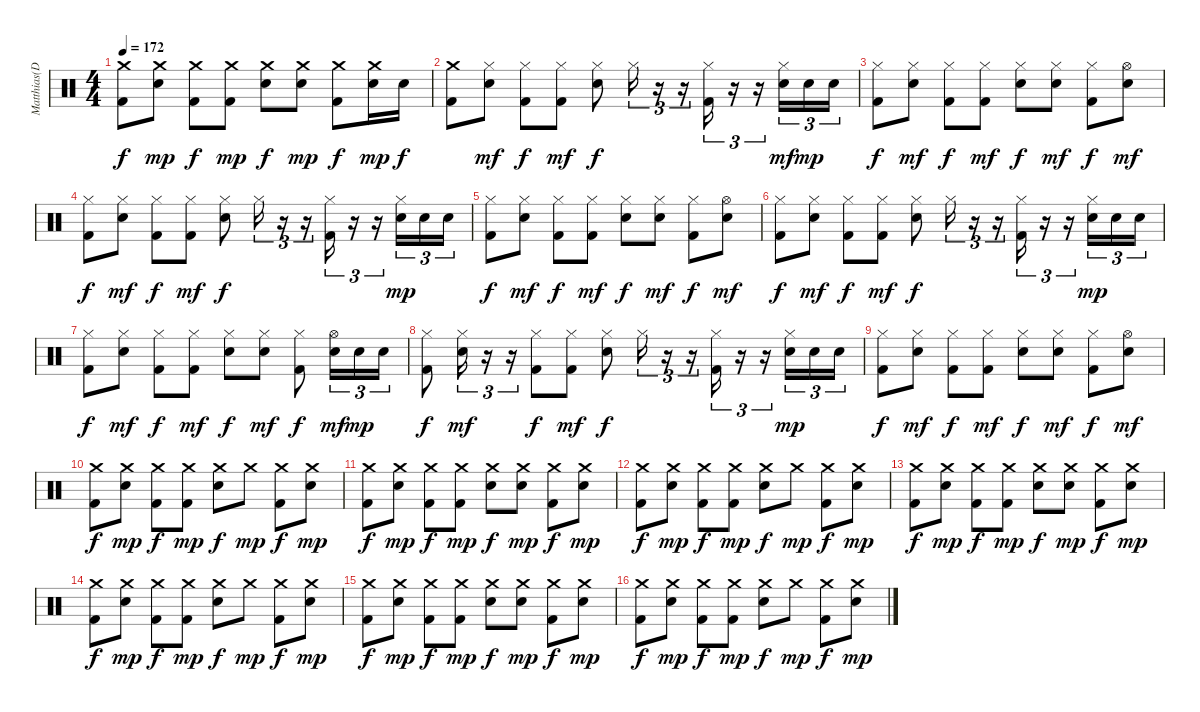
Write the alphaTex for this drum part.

\track ("Matthias(Drums)" "Matthias(D") {instrument percussion}
\staff {score}
\articulation defaults
\ts (4 4)
\tempo 172
\clef neutral
\ks c
("Crash medium (hit)" "Kick (hit) 2").8{dy f} ("Crash medium (hit)" "Snare (hit) 2").8{dy mp} ("Crash medium (hit)" "Kick (hit) 2").8{dy f} ("Crash medium (hit)" "Kick (hit) 2").8{dy mp} ("Crash medium (hit)" "Snare (hit) 2").8{dy f} ("Crash medium (hit)" "Snare (hit) 2").8{dy mp} ("Crash medium (hit)" "Kick (hit) 2").8{dy f} ("Crash medium (hit)" "Snare (hit) 2").16{dy mp} "Snare (hit) 2".16{dy f} |
("Crash medium (hit)" "Kick (hit) 2").8 ("Hi-Hat (closed)" "Snare (hit) 2").8{dy mf} ("Hi-Hat (closed)" "Kick (hit) 2").8{dy f} ("Hi-Hat (closed)" "Kick (hit) 2").8{dy mf} ("Hi-Hat (closed)" "Snare (hit) 2").8{dy f} "Hi-Hat (closed)".16{tu (3 2)} r.16{tu (3 2)} r.16{tu (3 2)} ("Hi-Hat (closed)" "Kick (hit) 2").16{tu (3 2)} r.16{tu (3 2)} r.16{tu (3 2)} ("Hi-Hat (closed)" "Snare (hit) 2").16{tu (3 2) dy mf} "Snare (hit) 2".16{tu (3 2) dy mp} "Snare (hit) 2".16{tu (3 2)} |
("Hi-Hat (closed)" "Kick (hit) 2").8{dy f} ("Hi-Hat (closed)" "Snare (hit) 2").8{dy mf} ("Hi-Hat (closed)" "Kick (hit) 2").8{dy f} ("Hi-Hat (closed)" "Kick (hit) 2").8{dy mf} ("Hi-Hat (closed)" "Snare (hit) 2").8{dy f} ("Hi-Hat (closed)" "Snare (hit) 2").8{dy mf} ("Hi-Hat (closed)" "Kick (hit) 2").8{dy f} ("Hi-Hat (open)" "Snare (hit) 2").8{dy mf} |
("Hi-Hat (closed)" "Kick (hit) 2").8{dy f} ("Hi-Hat (closed)" "Snare (hit) 2").8{dy mf} ("Hi-Hat (closed)" "Kick (hit) 2").8{dy f} ("Hi-Hat (closed)" "Kick (hit) 2").8{dy mf} ("Hi-Hat (closed)" "Snare (hit) 2").8{dy f} "Hi-Hat (closed)".16{tu (3 2)} r.16{tu (3 2)} r.16{tu (3 2)} ("Hi-Hat (closed)" "Kick (hit) 2").16{tu (3 2)} r.16{tu (3 2)} r.16{tu (3 2)} ("Hi-Hat (closed)" "Snare (hit) 2").16{tu (3 2) dy mp} "Snare (hit) 2".16{tu (3 2)} "Snare (hit) 2".16{tu (3 2)} |
("Hi-Hat (closed)" "Kick (hit) 2").8{dy f} ("Hi-Hat (closed)" "Snare (hit) 2").8{dy mf} ("Hi-Hat (closed)" "Kick (hit) 2").8{dy f} ("Hi-Hat (closed)" "Kick (hit) 2").8{dy mf} ("Hi-Hat (closed)" "Snare (hit) 2").8{dy f} ("Hi-Hat (closed)" "Snare (hit) 2").8{dy mf} ("Hi-Hat (closed)" "Kick (hit) 2").8{dy f} ("Hi-Hat (open)" "Snare (hit) 2").8{dy mf} |
("Hi-Hat (closed)" "Kick (hit) 2").8{dy f} ("Hi-Hat (closed)" "Snare (hit) 2").8{dy mf} ("Hi-Hat (closed)" "Kick (hit) 2").8{dy f} ("Hi-Hat (closed)" "Kick (hit) 2").8{dy mf} ("Hi-Hat (closed)" "Snare (hit) 2").8{dy f} "Hi-Hat (closed)".16{tu (3 2)} r.16{tu (3 2)} r.16{tu (3 2)} ("Hi-Hat (closed)" "Kick (hit) 2").16{tu (3 2)} r.16{tu (3 2)} r.16{tu (3 2)} ("Hi-Hat (closed)" "Snare (hit) 2").16{tu (3 2) dy mp} "Snare (hit) 2".16{tu (3 2)} "Snare (hit) 2".16{tu (3 2)} |
("Hi-Hat (closed)" "Kick (hit) 2").8{dy f} ("Hi-Hat (closed)" "Snare (hit) 2").8{dy mf} ("Hi-Hat (closed)" "Kick (hit) 2").8{dy f} ("Hi-Hat (closed)" "Kick (hit) 2").8{dy mf} ("Hi-Hat (closed)" "Snare (hit) 2").8{dy f} ("Hi-Hat (closed)" "Snare (hit) 2").8{dy mf} ("Hi-Hat (closed)" "Kick (hit) 2").8{dy f} ("Hi-Hat (open)" "Snare (hit) 2").16{tu (3 2) dy mf} "Snare (hit) 2".16{tu (3 2) dy mp} "Snare (hit) 2".16{tu (3 2)} |
("Hi-Hat (closed)" "Kick (hit) 2").8{dy f} ("Hi-Hat (closed)" "Snare (hit) 2").16{tu (3 2) dy mf} r.16{tu (3 2)} r.16{tu (3 2)} ("Hi-Hat (closed)" "Kick (hit) 2").8{dy f} ("Hi-Hat (closed)" "Kick (hit) 2").8{dy mf} ("Hi-Hat (closed)" "Snare (hit) 2").8{dy f} "Hi-Hat (closed)".16{tu (3 2)} r.16{tu (3 2)} r.16{tu (3 2)} ("Hi-Hat (closed)" "Kick (hit) 2").16{tu (3 2)} r.16{tu (3 2)} r.16{tu (3 2)} ("Hi-Hat (closed)" "Snare (hit) 2").16{tu (3 2) dy mp} "Snare (hit) 2".16{tu (3 2)} "Snare (hit) 2".16{tu (3 2)} |
("Hi-Hat (closed)" "Kick (hit) 2").8{dy f} ("Hi-Hat (closed)" "Snare (hit) 2").8{dy mf} ("Hi-Hat (closed)" "Kick (hit) 2").8{dy f} ("Hi-Hat (closed)" "Kick (hit) 2").8{dy mf} ("Hi-Hat (closed)" "Snare (hit) 2").8{dy f} ("Hi-Hat (closed)" "Snare (hit) 2").8{dy mf} ("Hi-Hat (closed)" "Kick (hit) 2").8{dy f} ("Hi-Hat (open)" "Snare (hit) 2").8{dy mf} |
("Crash medium (hit)" "Kick (hit) 2").8{dy f} ("Crash medium (hit)" "Snare (hit) 2").8{dy mp} ("Crash medium (hit)" "Kick (hit) 2").8{dy f} ("Crash medium (hit)" "Kick (hit) 2").8{dy mp} ("Crash medium (hit)" "Snare (hit) 2").8{dy f} "Crash medium (hit)".8{dy mp} ("Crash medium (hit)" "Kick (hit) 2").8{dy f} ("Crash medium (hit)" "Snare (hit) 2").8{dy mp} |
("Crash medium (hit)" "Kick (hit) 2").8{dy f} ("Crash medium (hit)" "Snare (hit) 2").8{dy mp} ("Crash medium (hit)" "Kick (hit) 2").8{dy f} ("Crash medium (hit)" "Kick (hit) 2").8{dy mp} ("Crash medium (hit)" "Snare (hit) 2").8{dy f} ("Crash medium (hit)" "Snare (hit) 2").8{dy mp} ("Crash medium (hit)" "Kick (hit) 2").8{dy f} ("Crash medium (hit)" "Snare (hit) 2").8{dy mp} |
("Crash medium (hit)" "Kick (hit) 2").8{dy f} ("Crash medium (hit)" "Snare (hit) 2").8{dy mp} ("Crash medium (hit)" "Kick (hit) 2").8{dy f} ("Crash medium (hit)" "Kick (hit) 2").8{dy mp} ("Crash medium (hit)" "Snare (hit) 2").8{dy f} "Crash medium (hit)".8{dy mp} ("Crash medium (hit)" "Kick (hit) 2").8{dy f} ("Crash medium (hit)" "Snare (hit) 2").8{dy mp} |
("Crash medium (hit)" "Kick (hit) 2").8{dy f} ("Crash medium (hit)" "Snare (hit) 2").8{dy mp} ("Crash medium (hit)" "Kick (hit) 2").8{dy f} ("Crash medium (hit)" "Kick (hit) 2").8{dy mp} ("Crash medium (hit)" "Snare (hit) 2").8{dy f} ("Crash medium (hit)" "Snare (hit) 2").8{dy mp} ("Crash medium (hit)" "Kick (hit) 2").8{dy f} ("Crash medium (hit)" "Snare (hit) 2").8{dy mp} |
("Crash medium (hit)" "Kick (hit) 2").8{dy f} ("Crash medium (hit)" "Snare (hit) 2").8{dy mp} ("Crash medium (hit)" "Kick (hit) 2").8{dy f} ("Crash medium (hit)" "Kick (hit) 2").8{dy mp} ("Crash medium (hit)" "Snare (hit) 2").8{dy f} "Crash medium (hit)".8{dy mp} ("Crash medium (hit)" "Kick (hit) 2").8{dy f} ("Crash medium (hit)" "Snare (hit) 2").8{dy mp} |
("Crash medium (hit)" "Kick (hit) 2").8{dy f} ("Crash medium (hit)" "Snare (hit) 2").8{dy mp} ("Crash medium (hit)" "Kick (hit) 2").8{dy f} ("Crash medium (hit)" "Kick (hit) 2").8{dy mp} ("Crash medium (hit)" "Snare (hit) 2").8{dy f} ("Crash medium (hit)" "Snare (hit) 2").8{dy mp} ("Crash medium (hit)" "Kick (hit) 2").8{dy f} ("Crash medium (hit)" "Snare (hit) 2").8{dy mp} |
("Crash medium (hit)" "Kick (hit) 2").8{dy f} ("Crash medium (hit)" "Snare (hit) 2").8{dy mp} ("Crash medium (hit)" "Kick (hit) 2").8{dy f} ("Crash medium (hit)" "Kick (hit) 2").8{dy mp} ("Crash medium (hit)" "Snare (hit) 2").8{dy f} "Crash medium (hit)".8{dy mp} ("Crash medium (hit)" "Kick (hit) 2").8{dy f} ("Crash medium (hit)" "Snare (hit) 2").8{dy mp}
